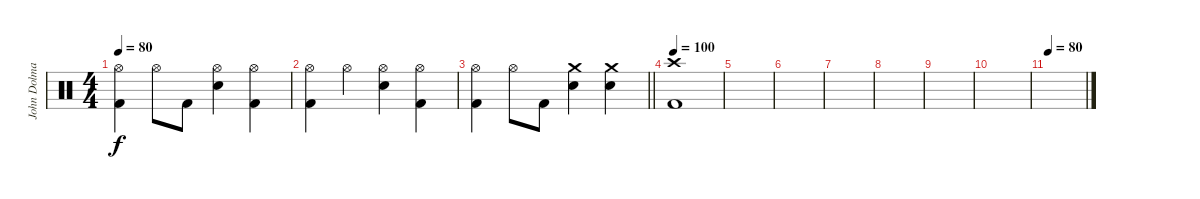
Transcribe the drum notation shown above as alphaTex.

\track ("John Dolmayan(Drums)" "John Dolma") {instrument percussion}
\staff {score}
\articulation defaults
\ts (4 4)
\tempo 80
\clef neutral
\ks c
("Hi-Hat (open)" "Kick (hit) 2").4{dy f} "Hi-Hat (open)".8 "Kick (hit) 2".8 ("Hi-Hat (open)" "Snare (hit) 2").4 ("Hi-Hat (open)" "Kick (hit) 2").4 |
("Hi-Hat (open)" "Kick (hit) 2").4 "Hi-Hat (open)".4 ("Hi-Hat (open)" "Snare (hit) 2").4 ("Hi-Hat (open)" "Kick (hit) 2").4 |
\barLineRight lightlight
("Hi-Hat (open)" "Kick (hit) 2").4 "Hi-Hat (open)".8 "Kick (hit) 2".8 ("Crash medium (hit)" "Snare (hit) 2").4 ("Crash medium (hit)" "Snare (hit) 2").4 |
\tempo 100
("Crash high (hit)" "Kick (hit) 2").1 |
|
|
|
|
|
|
\tempo 80
